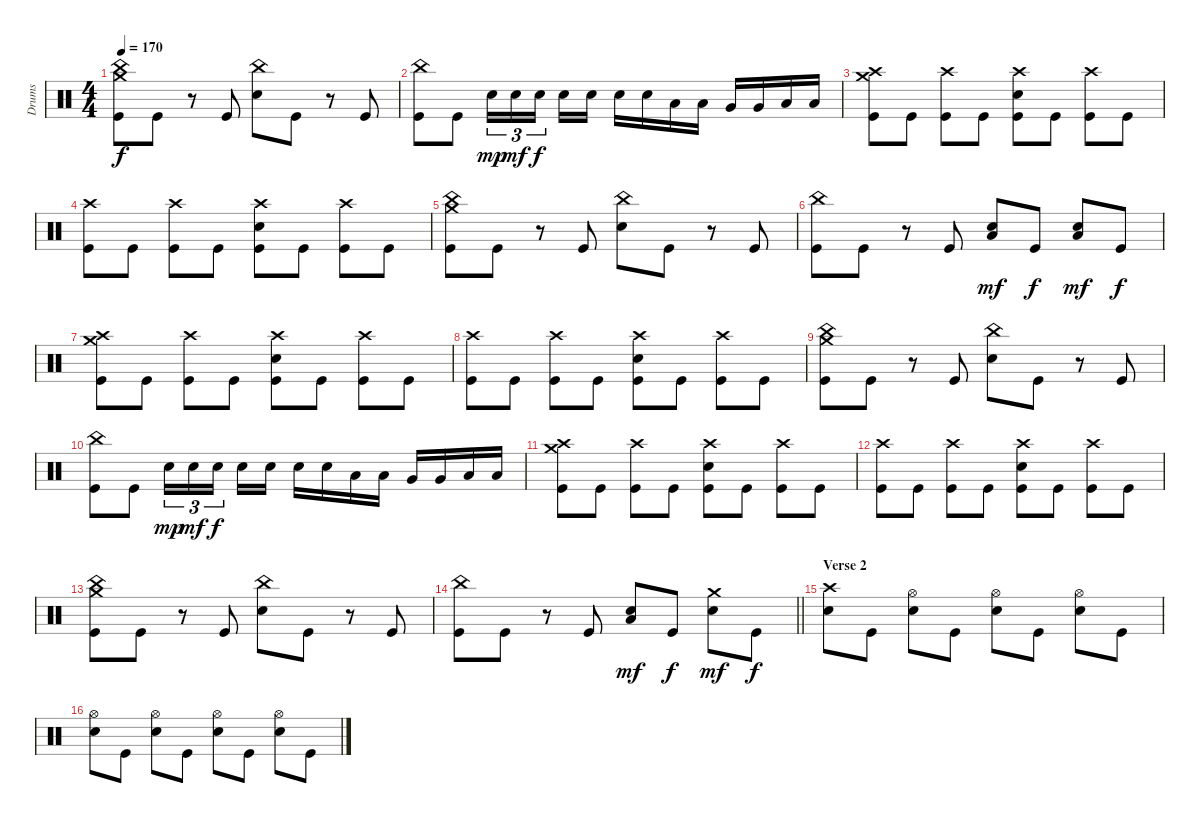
\track ("Drums" "Drums") {instrument percussion}
\staff {score}
\articulation defaults
\ts (4 4)
\tempo 170
\clef neutral
\ks c
("Kick (hit)" "China (hit)" "Crash medium (hit)").8{dy f} "Kick (hit)".8 r.8 "Kick (hit)".8 ("Snare (hit) 2" "China (hit)").8 "Kick (hit)".8 r.8 "Kick (hit)".8 |
("Kick (hit)" "China (hit)").8 "Kick (hit)".8 "Snare (hit) 2".16{tu (3 2) dy mp} "Snare (hit) 2".16{tu (3 2) dy mf} "Snare (hit) 2".16{tu (3 2) dy f beam splitsecondary} "Snare (hit) 2".16 "Snare (hit) 2".16 "Snare (hit) 2".16 "Snare (hit) 2".16 "Low Tom (hit)".16 "Low Tom (hit)".16 "Very Low Tom (hit)".16 "Very Low Tom (hit)".16 "Low Floor Tom (hit)".16 "Low Floor Tom (hit)".16 |
("Kick (hit)" "Crash high (hit)" "Crash medium (hit)").8 "Kick (hit)".8 ("Kick (hit)" "Crash high (hit)").8 "Kick (hit)".8 ("Kick (hit)" "Snare (hit) 2" "Crash high (hit)").8 "Kick (hit)".8 ("Kick (hit)" "Crash high (hit)").8 "Kick (hit)".8 |
("Kick (hit)" "Crash high (hit)").8 "Kick (hit)".8 ("Kick (hit)" "Crash high (hit)").8 "Kick (hit)".8 ("Kick (hit)" "Snare (hit) 2" "Crash high (hit)").8 "Kick (hit)".8 ("Kick (hit)" "Crash high (hit)").8 "Kick (hit)".8 |
("Kick (hit)" "China (hit)" "Crash medium (hit)").8 "Kick (hit)".8 r.8 "Kick (hit)".8 ("Snare (hit) 2" "China (hit)").8 "Kick (hit)".8 r.8 "Kick (hit)".8 |
("Kick (hit)" "China (hit)").8 "Kick (hit)".8 r.8 "Kick (hit)".8 ("Snare (hit) 2" "Low Tom (hit)").8{dy mf} "Kick (hit)".8{dy f} ("Snare (hit) 2" "Low Tom (hit)").8{dy mf} "Kick (hit)".8{dy f} |
("Kick (hit)" "Crash high (hit)" "Crash medium (hit)").8 "Kick (hit)".8 ("Kick (hit)" "Crash high (hit)").8 "Kick (hit)".8 ("Kick (hit)" "Snare (hit) 2" "Crash high (hit)").8 "Kick (hit)".8 ("Kick (hit)" "Crash high (hit)").8 "Kick (hit)".8 |
("Kick (hit)" "Crash high (hit)").8 "Kick (hit)".8 ("Kick (hit)" "Crash high (hit)").8 "Kick (hit)".8 ("Kick (hit)" "Snare (hit) 2" "Crash high (hit)").8 "Kick (hit)".8 ("Kick (hit)" "Crash high (hit)").8 "Kick (hit)".8 |
("Kick (hit)" "China (hit)" "Crash medium (hit)").8 "Kick (hit)".8 r.8 "Kick (hit)".8 ("Snare (hit) 2" "China (hit)").8 "Kick (hit)".8 r.8 "Kick (hit)".8 |
("Kick (hit)" "China (hit)").8 "Kick (hit)".8 "Snare (hit) 2".16{tu (3 2) dy mp} "Snare (hit) 2".16{tu (3 2) dy mf} "Snare (hit) 2".16{tu (3 2) dy f beam splitsecondary} "Snare (hit) 2".16 "Snare (hit) 2".16 "Snare (hit) 2".16 "Snare (hit) 2".16 "Low Tom (hit)".16 "Low Tom (hit)".16 "Very Low Tom (hit)".16 "Very Low Tom (hit)".16 "Low Floor Tom (hit)".16 "Low Floor Tom (hit)".16 |
("Kick (hit)" "Crash high (hit)" "Crash medium (hit)").8 "Kick (hit)".8 ("Kick (hit)" "Crash high (hit)").8 "Kick (hit)".8 ("Kick (hit)" "Snare (hit) 2" "Crash high (hit)").8 "Kick (hit)".8 ("Kick (hit)" "Crash high (hit)").8 "Kick (hit)".8 |
("Kick (hit)" "Crash high (hit)").8 "Kick (hit)".8 ("Kick (hit)" "Crash high (hit)").8 "Kick (hit)".8 ("Kick (hit)" "Snare (hit) 2" "Crash high (hit)").8 "Kick (hit)".8 ("Kick (hit)" "Crash high (hit)").8 "Kick (hit)".8 |
("Kick (hit)" "China (hit)" "Crash medium (hit)").8 "Kick (hit)".8 r.8 "Kick (hit)".8 ("Snare (hit) 2" "China (hit)").8 "Kick (hit)".8 r.8 "Kick (hit)".8 |
\barLineRight lightlight
("Kick (hit)" "China (hit)").8 "Kick (hit)".8 r.8 "Kick (hit)".8 ("Snare (hit) 2" "Low Tom (hit)").8{dy mf} "Kick (hit)".8{dy f} ("Snare (hit) 2" "Crash medium (hit)").8{dy mf} "Kick (hit)".8{dy f} |
\section ("" "Verse 2 ")
("Snare (hit) 2" "Crash high (hit)").8 "Kick (hit)".8 ("Snare (hit) 2" "Hi-Hat (open)").8 "Kick (hit)".8 ("Snare (hit) 2" "Hi-Hat (open)").8 "Kick (hit)".8 ("Snare (hit) 2" "Hi-Hat (open)").8 "Kick (hit)".8 |
("Snare (hit) 2" "Hi-Hat (open)").8 "Kick (hit)".8 ("Snare (hit) 2" "Hi-Hat (open)").8 "Kick (hit)".8 ("Snare (hit) 2" "Hi-Hat (open)").8 "Kick (hit)".8 ("Snare (hit) 2" "Hi-Hat (open)").8 "Kick (hit)".8
